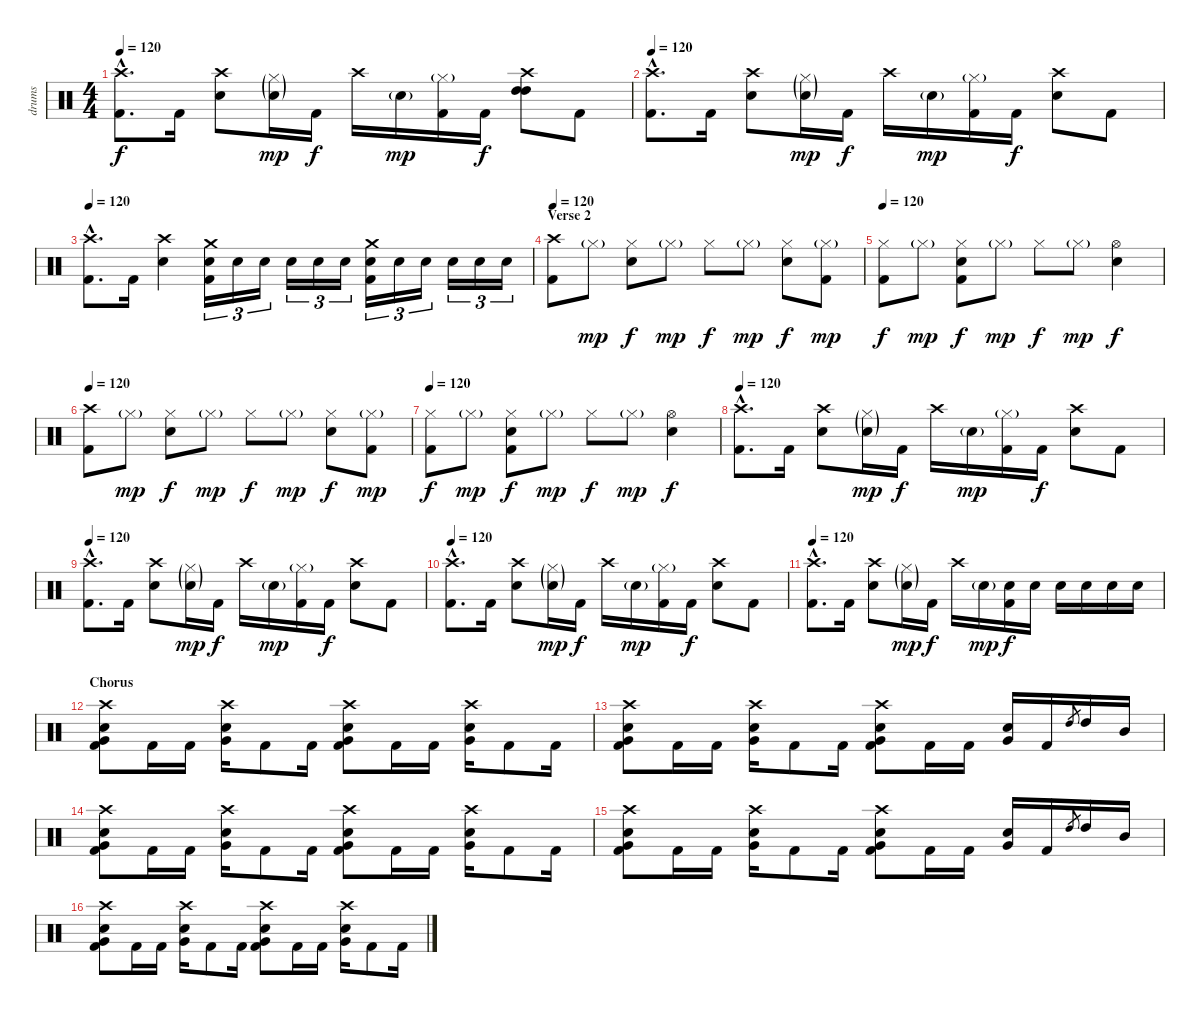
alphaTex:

\track ("drums" "drums") {instrument percussion}
\staff {score}
\articulation defaults
\ts (4 4)
\tempo 120
\clef neutral
\ks c
("Crash high (hit)"{hac} "Kick (hit) 2"{hac}).8{d dy f} "Kick (hit) 2".16 ("Crash high (hit)" "Electric Snare (hit)").8 ("Hi-Hat (closed)"{g} "Electric Snare (hit)"{g}).16{dy mp} "Kick (hit) 2".16{dy f} "Crash high (hit)".16 "Electric Snare (hit)"{g}.16{dy mp} ("Hi-Hat (closed)"{g} "Kick (hit) 2").16 "Kick (hit) 2".16{dy f} ("Crash high (hit)" "High Tom (hit)" "High Tom (hit)").8 "Kick (hit) 2".8 |
\tempo 120
("Crash high (hit)"{hac} "Kick (hit) 2"{hac}).8{d} "Kick (hit) 2".16 ("Crash high (hit)" "Electric Snare (hit)").8 ("Hi-Hat (closed)"{g} "Electric Snare (hit)"{g}).16{dy mp} "Kick (hit) 2".16{dy f} "Crash high (hit)".16 "Electric Snare (hit)"{g}.16{dy mp} ("Hi-Hat (closed)"{g} "Kick (hit) 2").16 "Kick (hit) 2".16{dy f} ("Crash high (hit)" "Electric Snare (hit)").8 "Kick (hit) 2".8 |
\tempo 120
("Crash high (hit)"{hac} "Kick (hit) 2"{hac}).8{d} "Kick (hit) 2".16 ("Crash high (hit)" "Electric Snare (hit)").4 ("Crash medium (hit)" "Electric Snare (hit)" "Kick (hit) 2").16{tu (3 2)} "Electric Snare (hit)".16{tu (3 2)} "Electric Snare (hit)".16{tu (3 2)} "Electric Snare (hit)".16{tu (3 2)} "Electric Snare (hit)".16{tu (3 2)} "Electric Snare (hit)".16{tu (3 2)} ("Crash medium (hit)" "Electric Snare (hit)" "Kick (hit) 2").16{tu (3 2)} "Electric Snare (hit)".16{tu (3 2)} "Electric Snare (hit)".16{tu (3 2)} "Electric Snare (hit)".16{tu (3 2)} "Electric Snare (hit)".16{tu (3 2)} "Electric Snare (hit)".16{tu (3 2)} |
\section ("" "Verse 2")
\tempo 120
("Crash high (hit)" "Kick (hit) 2").8 "Hi-Hat (closed)"{g}.8{dy mp} ("Hi-Hat (closed)" "Electric Snare (hit)").8{dy f} "Hi-Hat (closed)"{g}.8{dy mp} "Hi-Hat (closed)".8{dy f} "Hi-Hat (closed)"{g}.8{dy mp} ("Hi-Hat (closed)" "Electric Snare (hit)").8{dy f} ("Hi-Hat (closed)"{g} "Kick (hit) 2").8{dy mp} |
\tempo 120
("Hi-Hat (closed)" "Kick (hit) 2").8{dy f} "Hi-Hat (closed)"{g}.8{dy mp} ("Hi-Hat (closed)" "Electric Snare (hit)" "Kick (hit) 2").8{dy f} "Hi-Hat (closed)"{g}.8{dy mp} "Hi-Hat (closed)".8{dy f} "Hi-Hat (closed)"{g}.8{dy mp} ("Hi-Hat (open)" "Electric Snare (hit)").4{dy f} |
\tempo 120
("Crash high (hit)" "Kick (hit) 2").8 "Hi-Hat (closed)"{g}.8{dy mp} ("Hi-Hat (closed)" "Electric Snare (hit)").8{dy f} "Hi-Hat (closed)"{g}.8{dy mp} "Hi-Hat (closed)".8{dy f} "Hi-Hat (closed)"{g}.8{dy mp} ("Hi-Hat (closed)" "Electric Snare (hit)").8{dy f} ("Hi-Hat (closed)"{g} "Kick (hit) 2").8{dy mp} |
\tempo 120
("Hi-Hat (closed)" "Kick (hit) 2").8{dy f} "Hi-Hat (closed)"{g}.8{dy mp} ("Hi-Hat (closed)" "Electric Snare (hit)" "Kick (hit) 2").8{dy f} "Hi-Hat (closed)"{g}.8{dy mp} "Hi-Hat (closed)".8{dy f} "Hi-Hat (closed)"{g}.8{dy mp} ("Hi-Hat (open)" "Electric Snare (hit)").4{dy f} |
\tempo 120
("Crash high (hit)"{hac} "Kick (hit) 2"{hac}).8{d} "Kick (hit) 2".16 ("Crash high (hit)" "Electric Snare (hit)").8 ("Hi-Hat (closed)"{g} "Electric Snare (hit)"{g}).16{dy mp} "Kick (hit) 2".16{dy f} "Crash high (hit)".16 "Electric Snare (hit)"{g}.16{dy mp} ("Hi-Hat (closed)"{g} "Kick (hit) 2").16 "Kick (hit) 2".16{dy f} ("Crash high (hit)" "Electric Snare (hit)").8 "Kick (hit) 2".8 |
\tempo 120
("Crash high (hit)"{hac} "Kick (hit) 2"{hac}).8{d} "Kick (hit) 2".16 ("Crash high (hit)" "Electric Snare (hit)").8 ("Hi-Hat (closed)"{g} "Electric Snare (hit)"{g}).16{dy mp} "Kick (hit) 2".16{dy f} "Crash high (hit)".16 "Electric Snare (hit)"{g}.16{dy mp} ("Hi-Hat (closed)"{g} "Kick (hit) 2").16 "Kick (hit) 2".16{dy f} ("Crash high (hit)" "Electric Snare (hit)").8 "Kick (hit) 2".8 |
\tempo 120
("Crash high (hit)"{hac} "Kick (hit) 2"{hac}).8{d} "Kick (hit) 2".16 ("Crash high (hit)" "Electric Snare (hit)").8 ("Hi-Hat (closed)"{g} "Electric Snare (hit)"{g}).16{dy mp} "Kick (hit) 2".16{dy f} "Crash high (hit)".16 "Electric Snare (hit)"{g}.16{dy mp} ("Hi-Hat (closed)"{g} "Kick (hit) 2").16 "Kick (hit) 2".16{dy f} ("Crash high (hit)" "Electric Snare (hit)").8 "Kick (hit) 2".8 |
\tempo 120
("Crash high (hit)"{hac} "Kick (hit) 2"{hac}).8{d} "Kick (hit) 2".16 ("Crash high (hit)" "Electric Snare (hit)").8 ("Hi-Hat (closed)"{g} "Electric Snare (hit)"{g}).16{dy mp} "Kick (hit) 2".16{dy f} "Crash high (hit)".16 "Electric Snare (hit)"{g}.16{dy mp} ("Electric Snare (hit)" "Kick (hit) 2").16{dy f} "Electric Snare (hit)".16 "Electric Snare (hit)".16 "Electric Snare (hit)".16 "Electric Snare (hit)".16 "Electric Snare (hit)".16 |
\section ("" "Chorus")
("Crash high (hit)" "Electric Snare (hit)" "Very Low Tom (hit)" "Kick (hit) 2").8 "Kick (hit) 2".16 "Kick (hit) 2".16 ("Crash high (hit)" "Electric Snare (hit)" "Very Low Tom (hit)").16 "Kick (hit) 2".8 "Kick (hit) 2".16 ("Crash high (hit)" "Electric Snare (hit)" "Very Low Tom (hit)" "Kick (hit) 2").8 "Kick (hit) 2".16 "Kick (hit) 2".16 ("Crash high (hit)" "Electric Snare (hit)" "Very Low Tom (hit)").16 "Kick (hit) 2".8 "Kick (hit) 2".16 |
("Crash high (hit)" "Electric Snare (hit)" "Very Low Tom (hit)" "Kick (hit) 2").8 "Kick (hit) 2".16 "Kick (hit) 2".16 ("Crash high (hit)" "Electric Snare (hit)" "Very Low Tom (hit)").16 "Kick (hit) 2".8 "Kick (hit) 2".16 ("Crash high (hit)" "Electric Snare (hit)" "Very Low Tom (hit)" "Kick (hit) 2").8 "Kick (hit) 2".16 "Kick (hit) 2".16 ("Electric Snare (hit)" "Very Low Tom (hit)").16 "Kick (hit) 2".16 "High Tom (hit)".8{gr} "High Tom (hit)".16 "Mid Tom (hit)".16 |
("Crash high (hit)" "Electric Snare (hit)" "Very Low Tom (hit)" "Kick (hit) 2").8 "Kick (hit) 2".16 "Kick (hit) 2".16 ("Crash high (hit)" "Electric Snare (hit)" "Very Low Tom (hit)").16 "Kick (hit) 2".8 "Kick (hit) 2".16 ("Crash high (hit)" "Electric Snare (hit)" "Very Low Tom (hit)" "Kick (hit) 2").8 "Kick (hit) 2".16 "Kick (hit) 2".16 ("Crash high (hit)" "Electric Snare (hit)" "Very Low Tom (hit)").16 "Kick (hit) 2".8 "Kick (hit) 2".16 |
("Crash high (hit)" "Electric Snare (hit)" "Very Low Tom (hit)" "Kick (hit) 2").8 "Kick (hit) 2".16 "Kick (hit) 2".16 ("Crash high (hit)" "Electric Snare (hit)" "Very Low Tom (hit)").16 "Kick (hit) 2".8 "Kick (hit) 2".16 ("Crash high (hit)" "Electric Snare (hit)" "Very Low Tom (hit)" "Kick (hit) 2").8 "Kick (hit) 2".16 "Kick (hit) 2".16 ("Electric Snare (hit)" "Very Low Tom (hit)").16 "Kick (hit) 2".16 "High Tom (hit)".8{gr} "High Tom (hit)".16 "Mid Tom (hit)".16 |
("Crash high (hit)" "Electric Snare (hit)" "Very Low Tom (hit)" "Kick (hit) 2").8 "Kick (hit) 2".16 "Kick (hit) 2".16 ("Crash high (hit)" "Electric Snare (hit)" "Very Low Tom (hit)").16 "Kick (hit) 2".8 "Kick (hit) 2".16 ("Crash high (hit)" "Electric Snare (hit)" "Very Low Tom (hit)" "Kick (hit) 2").8 "Kick (hit) 2".16 "Kick (hit) 2".16 ("Crash high (hit)" "Electric Snare (hit)" "Very Low Tom (hit)").16 "Kick (hit) 2".8 "Kick (hit) 2".16
